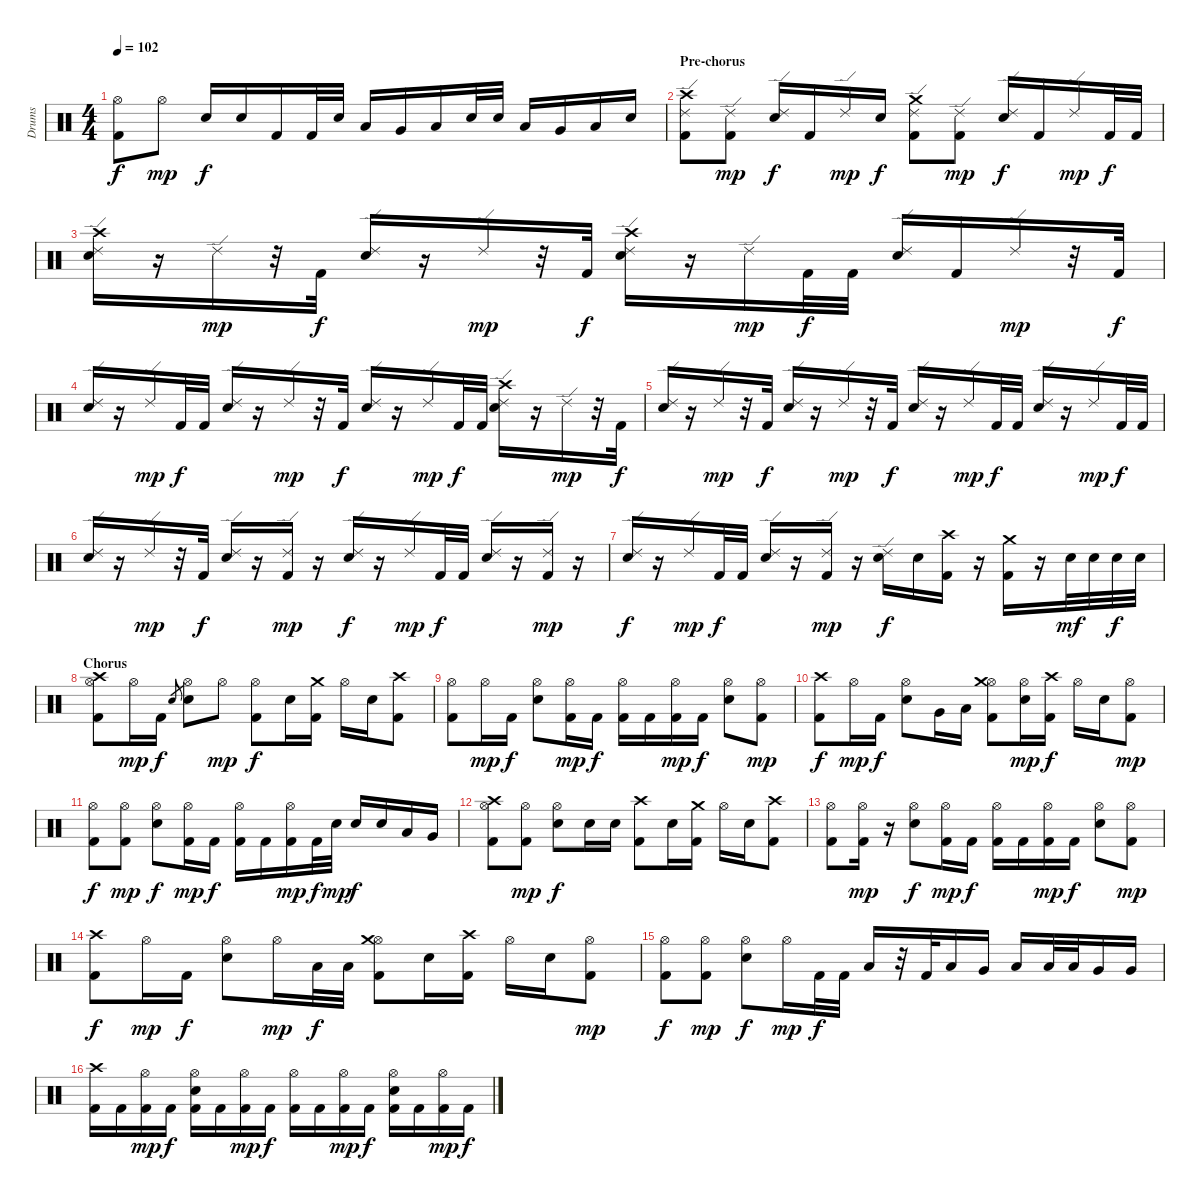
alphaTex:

\track ("Drums" "Drums") {instrument percussion}
\staff {score}
\articulation defaults
\ts (4 4)
\tempo 102
\clef neutral
\ks c
("Kick (hit) 2" "Hi-Hat (open)").8{dy f} "Hi-Hat (open)".8{dy mp} "Electric Snare (hit)".16{dy f} "Electric Snare (hit)".16 "Kick (hit) 2".16 "Kick (hit) 2".32 "Electric Snare (hit)".32 "Low Tom (hit)".16 "Very Low Tom (hit)".16 "Low Floor Tom (hit)".16 "Electric Snare (hit)".32 "Electric Snare (hit)".32 "Low Tom (hit)".16 "Very Low Tom (hit)".16 "Low Floor Tom (hit)".16 "Electric Snare (hit)".16 |
\section ("" "Pre-chorus")
("Kick (hit) 2" "Ride (edge) 2" "Crash high (hit)").8 ("Kick (hit) 2" "Ride (edge) 2").8{dy mp} ("Ride (edge) 2" "Electric Snare (hit)").16{dy f} "Kick (hit) 2".16 "Ride (edge) 2".16{dy mp} "Electric Snare (hit)".16{dy f} ("Kick (hit) 2" "Ride (edge) 2" "Crash medium (hit)").8 ("Kick (hit) 2" "Ride (edge) 2").8{dy mp} ("Ride (edge) 2" "Electric Snare (hit)").16{dy f} "Kick (hit) 2".16 "Ride (edge) 2".16{dy mp} "Kick (hit) 2".32{dy f} "Kick (hit) 2".32 |
("Ride (edge) 2" "Electric Snare (hit)" "Crash high (hit)").16 r.16 "Ride (edge) 2".16{dy mp} r.32 "Kick (hit) 2".32{dy f} ("Ride (edge) 2" "Electric Snare (hit)").16 r.16 "Ride (edge) 2".16{dy mp} r.32 "Kick (hit) 2".32{dy f} ("Ride (edge) 2" "Electric Snare (hit)" "Crash high (hit)").16 r.16 "Ride (edge) 2".16{dy mp} "Kick (hit) 2".32{dy f} "Kick (hit) 2".32 ("Ride (edge) 2" "Electric Snare (hit)").16 "Kick (hit) 2".16 "Ride (edge) 2".16{dy mp} r.32 "Kick (hit) 2".32{dy f} |
("Ride (edge) 2" "Electric Snare (hit)").16 r.16 "Ride (edge) 2".16{dy mp} "Kick (hit) 2".32{dy f} "Kick (hit) 2".32 ("Ride (edge) 2" "Electric Snare (hit)").16 r.16 "Ride (edge) 2".16{dy mp} r.32 "Kick (hit) 2".32{dy f} ("Ride (edge) 2" "Electric Snare (hit)").16 r.16 "Ride (edge) 2".16{dy mp} "Kick (hit) 2".32{dy f} "Kick (hit) 2".32 ("Ride (edge) 2" "Electric Snare (hit)" "Crash high (hit)").16 r.16 "Ride (edge) 2".16{dy mp} r.32 "Kick (hit) 2".32{dy f} |
("Ride (edge) 2" "Electric Snare (hit)").16 r.16 "Ride (edge) 2".16{dy mp} r.32 "Kick (hit) 2".32{dy f} ("Ride (edge) 2" "Electric Snare (hit)").16 r.16 "Ride (edge) 2".16{dy mp} r.32 "Kick (hit) 2".32{dy f} ("Ride (edge) 2" "Electric Snare (hit)").16 r.16 "Ride (edge) 2".16{dy mp} "Kick (hit) 2".32{dy f} "Kick (hit) 2".32 ("Ride (edge) 2" "Electric Snare (hit)").16 r.16 "Ride (edge) 2".16{dy mp} "Kick (hit) 2".32{dy f} "Kick (hit) 2".32 |
("Ride (edge) 2" "Electric Snare (hit)").16 r.16 "Ride (edge) 2".16{dy mp} r.32 "Kick (hit) 2".32{dy f} ("Ride (edge) 2" "Electric Snare (hit)").16 r.16 ("Kick (hit) 2" "Ride (edge) 2").16{dy mp} r.16 ("Ride (edge) 2" "Electric Snare (hit)").16{dy f} r.16 "Ride (edge) 2".16{dy mp} "Kick (hit) 2".32{dy f} "Kick (hit) 2".32 ("Ride (edge) 2" "Electric Snare (hit)").16 r.16 ("Kick (hit) 2" "Ride (edge) 2").16{dy mp} r.16 |
("Ride (edge) 2" "Electric Snare (hit)").16{dy f} r.16 "Ride (edge) 2".16{dy mp} "Kick (hit) 2".32{dy f} "Kick (hit) 2".32 ("Ride (edge) 2" "Electric Snare (hit)").16 r.16 ("Kick (hit) 2" "Ride (edge) 2").16{dy mp} r.16 ("Ride (edge) 2" "Electric Snare (hit)").16{dy f} "Electric Snare (hit)".16 ("Kick (hit) 2" "Crash high (hit)").16 r.16 ("Kick (hit) 2" "Crash medium (hit)").16 r.16 "Electric Snare (hit)".32{dy mf} "Electric Snare (hit)".32 "Electric Snare (hit)".32{dy f} "Electric Snare (hit)".32 |
\section ("" "Chorus")
("Kick (hit) 2" "Hi-Hat (open)" "Crash high (hit)").8 "Hi-Hat (open)".16{dy mp} "Kick (hit) 2".16{dy f} "Electric Snare (hit)".8{gr} ("Electric Snare (hit)" "Hi-Hat (open)").8 "Hi-Hat (open)".8{dy mp} ("Kick (hit) 2" "Hi-Hat (open)").8{dy f} "Electric Snare (hit)".16 ("Kick (hit) 2" "Crash medium (hit)").16 "Hi-Hat (open)".16 "Electric Snare (hit)".16 ("Kick (hit) 2" "Crash high (hit)").8 |
("Kick (hit) 2" "Hi-Hat (open)").8 "Hi-Hat (open)".16{dy mp} "Kick (hit) 2".16{dy f} ("Electric Snare (hit)" "Hi-Hat (open)").8 ("Kick (hit) 2" "Hi-Hat (open)").16{dy mp} "Kick (hit) 2".16{dy f} ("Kick (hit) 2" "Hi-Hat (open)").16 "Kick (hit) 2".16 ("Kick (hit) 2" "Hi-Hat (open)").16{dy mp} "Kick (hit) 2".16{dy f} ("Electric Snare (hit)" "Hi-Hat (open)").8 ("Kick (hit) 2" "Hi-Hat (open)").8{dy mp} |
("Kick (hit) 2" "Crash high (hit)").8{dy f} "Hi-Hat (open)".16{dy mp} "Kick (hit) 2".16{dy f} ("Electric Snare (hit)" "Hi-Hat (open)").8 "Very Low Tom (hit)".16 "Low Floor Tom (hit)".16 ("Kick (hit) 2" "Hi-Hat (open)" "Crash medium (hit)").8 ("Electric Snare (hit)" "Hi-Hat (open)").16{dy mp} ("Kick (hit) 2" "Crash high (hit)").16{dy f} "Hi-Hat (open)".16 "Electric Snare (hit)".16 ("Kick (hit) 2" "Hi-Hat (open)").8{dy mp} |
("Kick (hit) 2" "Hi-Hat (open)").8{dy f} ("Kick (hit) 2" "Hi-Hat (open)").8{dy mp} ("Electric Snare (hit)" "Hi-Hat (open)").8{dy f} ("Kick (hit) 2" "Hi-Hat (open)").16{dy mp} "Kick (hit) 2".16{dy f} ("Kick (hit) 2" "Hi-Hat (open)").16 "Kick (hit) 2".16 ("Kick (hit) 2" "Hi-Hat (open)").16{dy mp} "Kick (hit) 2".32{dy f} "Electric Snare (hit)".32{dy mp} "Electric Snare (hit)".16{dy f} "Electric Snare (hit)".16 "Low Tom (hit)".16 "Very Low Tom (hit)".16 |
("Kick (hit) 2" "Hi-Hat (open)" "Crash high (hit)").8 ("Kick (hit) 2" "Hi-Hat (open)").8{dy mp} ("Electric Snare (hit)" "Hi-Hat (open)").8{dy f} "Electric Snare (hit)".16 "Electric Snare (hit)".16 ("Kick (hit) 2" "Crash high (hit)").8 "Electric Snare (hit)".16 ("Kick (hit) 2" "Crash medium (hit)").16 "Hi-Hat (open)".16 "Electric Snare (hit)".16 ("Kick (hit) 2" "Crash high (hit)").8 |
("Kick (hit) 2" "Hi-Hat (open)").8 ("Kick (hit) 2" "Hi-Hat (open)").16{dy mp} r.16 ("Electric Snare (hit)" "Hi-Hat (open)").8{dy f} ("Kick (hit) 2" "Hi-Hat (open)").16{dy mp} "Kick (hit) 2".16{dy f} ("Kick (hit) 2" "Hi-Hat (open)").16 "Kick (hit) 2".16 ("Kick (hit) 2" "Hi-Hat (open)").16{dy mp} "Kick (hit) 2".16{dy f} ("Electric Snare (hit)" "Hi-Hat (open)").8 ("Kick (hit) 2" "Hi-Hat (open)").8{dy mp} |
("Kick (hit) 2" "Crash high (hit)").8{dy f} "Hi-Hat (open)".16{dy mp} "Kick (hit) 2".16{dy f} ("Electric Snare (hit)" "Hi-Hat (open)").8 "Hi-Hat (open)".16{dy mp} "Low Floor Tom (hit)".32{dy f} "Low Floor Tom (hit)".32 ("Kick (hit) 2" "Hi-Hat (open)" "Crash medium (hit)").8 "Electric Snare (hit)".16 ("Kick (hit) 2" "Crash high (hit)").16 "Hi-Hat (open)".16 "Electric Snare (hit)".16 ("Kick (hit) 2" "Hi-Hat (open)").8{dy mp} |
("Kick (hit) 2" "Hi-Hat (open)").8{dy f} ("Kick (hit) 2" "Hi-Hat (open)").8{dy mp} ("Electric Snare (hit)" "Hi-Hat (open)").8{dy f} "Hi-Hat (open)".16{dy mp} "Kick (hit) 2".32{dy f} "Kick (hit) 2".32 "Low Tom (hit)".16 r.32 "Kick (hit) 2".32 "Low Tom (hit)".16 "Very Low Tom (hit)".16 "Low Tom (hit)".16 "Low Tom (hit)".32 "Low Tom (hit)".32 "Very Low Tom (hit)".16 "Very Low Tom (hit)".16 |
("Kick (hit) 2" "Crash high (hit)").16 "Kick (hit) 2".16 ("Kick (hit) 2" "Hi-Hat (open)").16{dy mp} "Kick (hit) 2".16{dy f} ("Kick (hit) 2" "Hi-Hat (open)" "Electric Snare (hit)").16 "Kick (hit) 2".16 ("Kick (hit) 2" "Hi-Hat (open)").16{dy mp} "Kick (hit) 2".16{dy f} ("Kick (hit) 2" "Hi-Hat (open)").16 "Kick (hit) 2".16 ("Kick (hit) 2" "Hi-Hat (open)").16{dy mp} "Kick (hit) 2".16{dy f} ("Kick (hit) 2" "Hi-Hat (open)" "Electric Snare (hit)").16 "Kick (hit) 2".16 ("Kick (hit) 2" "Hi-Hat (open)").16{dy mp} "Kick (hit) 2".16{dy f}
